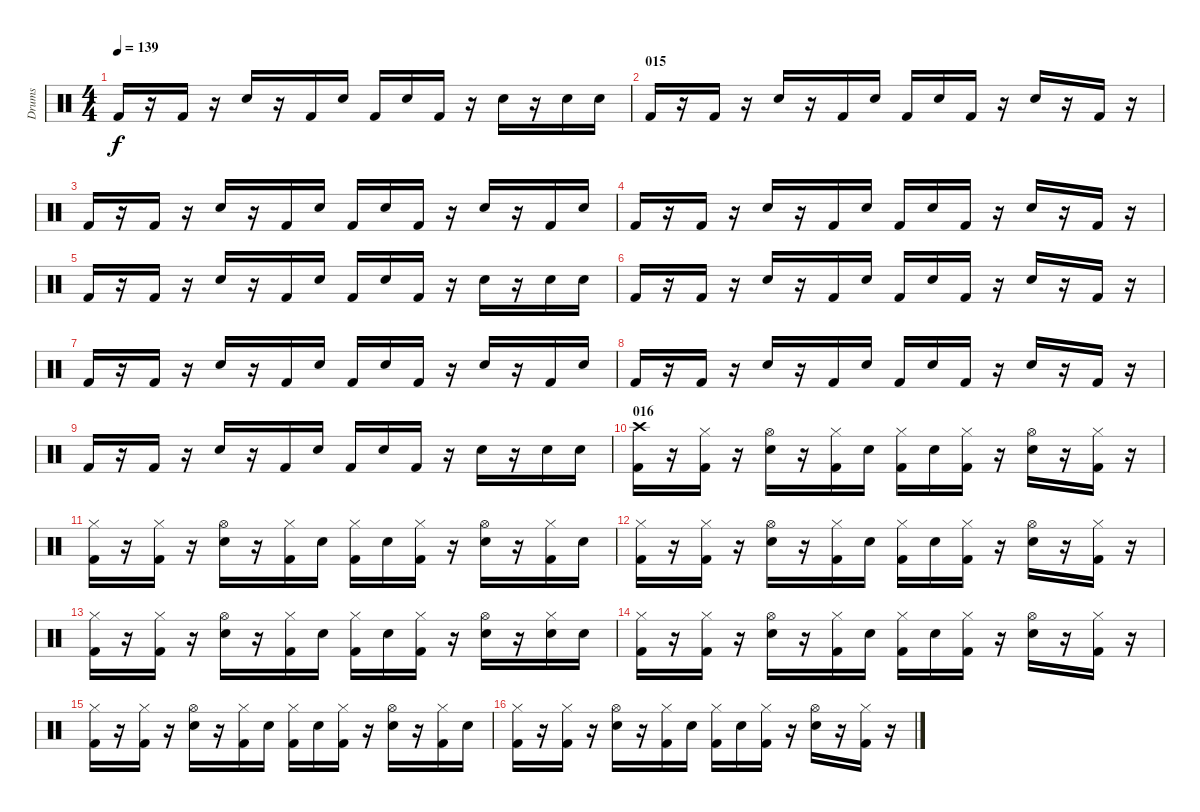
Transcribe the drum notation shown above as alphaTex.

\track ("Drums" "Drums") {instrument percussion}
\staff {score}
\articulation defaults
\ts (4 4)
\tempo 139
\clef neutral
\ks c "Kick (hit) 2".16{dy f}
r.16 "Kick (hit) 2".16 r.16 "Electric Snare (hit)".16 r.16 "Kick (hit) 2".16 "Electric Snare (hit)".16 "Kick (hit) 2".16 "Electric Snare (hit)".16 "Kick (hit) 2".16 r.16 "Electric Snare (hit)".16 r.16 "Electric Snare (hit)".16 "Electric Snare (hit)".16 |
\section ("" "015")
"Kick (hit) 2".16 r.16 "Kick (hit) 2".16 r.16 "Electric Snare (hit)".16 r.16 "Kick (hit) 2".16 "Electric Snare (hit)".16 "Kick (hit) 2".16 "Electric Snare (hit)".16 "Kick (hit) 2".16 r.16 "Electric Snare (hit)".16 r.16 "Kick (hit) 2".16 r.16 |
"Kick (hit) 2".16 r.16 "Kick (hit) 2".16 r.16 "Electric Snare (hit)".16 r.16 "Kick (hit) 2".16 "Electric Snare (hit)".16 "Kick (hit) 2".16 "Electric Snare (hit)".16 "Kick (hit) 2".16 r.16 "Electric Snare (hit)".16 r.16 "Kick (hit) 2".16 "Electric Snare (hit)".16 |
"Kick (hit) 2".16 r.16 "Kick (hit) 2".16 r.16 "Electric Snare (hit)".16 r.16 "Kick (hit) 2".16 "Electric Snare (hit)".16 "Kick (hit) 2".16 "Electric Snare (hit)".16 "Kick (hit) 2".16 r.16 "Electric Snare (hit)".16 r.16 "Kick (hit) 2".16 r.16 |
"Kick (hit) 2".16 r.16 "Kick (hit) 2".16 r.16 "Electric Snare (hit)".16 r.16 "Kick (hit) 2".16 "Electric Snare (hit)".16 "Kick (hit) 2".16 "Electric Snare (hit)".16 "Kick (hit) 2".16 r.16 "Electric Snare (hit)".16 r.16 "Electric Snare (hit)".16 "Electric Snare (hit)".16 |
"Kick (hit) 2".16 r.16 "Kick (hit) 2".16 r.16 "Electric Snare (hit)".16 r.16 "Kick (hit) 2".16 "Electric Snare (hit)".16 "Kick (hit) 2".16 "Electric Snare (hit)".16 "Kick (hit) 2".16 r.16 "Electric Snare (hit)".16 r.16 "Kick (hit) 2".16 r.16 |
"Kick (hit) 2".16 r.16 "Kick (hit) 2".16 r.16 "Electric Snare (hit)".16 r.16 "Kick (hit) 2".16 "Electric Snare (hit)".16 "Kick (hit) 2".16 "Electric Snare (hit)".16 "Kick (hit) 2".16 r.16 "Electric Snare (hit)".16 r.16 "Kick (hit) 2".16 "Electric Snare (hit)".16 |
"Kick (hit) 2".16 r.16 "Kick (hit) 2".16 r.16 "Electric Snare (hit)".16 r.16 "Kick (hit) 2".16 "Electric Snare (hit)".16 "Kick (hit) 2".16 "Electric Snare (hit)".16 "Kick (hit) 2".16 r.16 "Electric Snare (hit)".16 r.16 "Kick (hit) 2".16 r.16 |
"Kick (hit) 2".16 r.16 "Kick (hit) 2".16 r.16 "Electric Snare (hit)".16 r.16 "Kick (hit) 2".16 "Electric Snare (hit)".16 "Kick (hit) 2".16 "Electric Snare (hit)".16 "Kick (hit) 2".16 r.16 "Electric Snare (hit)".16 r.16 "Electric Snare (hit)".16 "Electric Snare (hit)".16 |
\section ("" "016")
("Kick (hit) 2" "Crash high (hit)").16 r.16 ("Kick (hit) 2" "Hi-Hat (closed)").16 r.16 ("Electric Snare (hit)" "Hi-Hat (open)").16 r.16 ("Kick (hit) 2" "Hi-Hat (closed)").16 "Electric Snare (hit)".16 ("Kick (hit) 2" "Hi-Hat (closed)").16 "Electric Snare (hit)".16 ("Kick (hit) 2" "Hi-Hat (closed)").16 r.16 ("Electric Snare (hit)" "Hi-Hat (open)").16 r.16 ("Kick (hit) 2" "Hi-Hat (closed)").16 r.16 |
("Kick (hit) 2" "Hi-Hat (closed)").16 r.16 ("Kick (hit) 2" "Hi-Hat (closed)").16 r.16 ("Electric Snare (hit)" "Hi-Hat (open)").16 r.16 ("Kick (hit) 2" "Hi-Hat (closed)").16 "Electric Snare (hit)".16 ("Kick (hit) 2" "Hi-Hat (closed)").16 "Electric Snare (hit)".16 ("Kick (hit) 2" "Hi-Hat (closed)").16 r.16 ("Electric Snare (hit)" "Hi-Hat (open)").16 r.16 ("Kick (hit) 2" "Hi-Hat (closed)").16 "Electric Snare (hit)".16 |
("Kick (hit) 2" "Hi-Hat (closed)").16 r.16 ("Kick (hit) 2" "Hi-Hat (closed)").16 r.16 ("Electric Snare (hit)" "Hi-Hat (open)").16 r.16 ("Kick (hit) 2" "Hi-Hat (closed)").16 "Electric Snare (hit)".16 ("Kick (hit) 2" "Hi-Hat (closed)").16 "Electric Snare (hit)".16 ("Kick (hit) 2" "Hi-Hat (closed)").16 r.16 ("Electric Snare (hit)" "Hi-Hat (open)").16 r.16 ("Kick (hit) 2" "Hi-Hat (closed)").16 r.16 |
("Kick (hit) 2" "Hi-Hat (closed)").16 r.16 ("Kick (hit) 2" "Hi-Hat (closed)").16 r.16 ("Electric Snare (hit)" "Hi-Hat (open)").16 r.16 ("Kick (hit) 2" "Hi-Hat (closed)").16 "Electric Snare (hit)".16 ("Kick (hit) 2" "Hi-Hat (closed)").16 "Electric Snare (hit)".16 ("Kick (hit) 2" "Hi-Hat (closed)").16 r.16 ("Electric Snare (hit)" "Hi-Hat (open)").16 r.16 ("Electric Snare (hit)" "Hi-Hat (closed)").16 "Electric Snare (hit)".16 |
("Kick (hit) 2" "Hi-Hat (closed)").16 r.16 ("Kick (hit) 2" "Hi-Hat (closed)").16 r.16 ("Electric Snare (hit)" "Hi-Hat (open)").16 r.16 ("Kick (hit) 2" "Hi-Hat (closed)").16 "Electric Snare (hit)".16 ("Kick (hit) 2" "Hi-Hat (closed)").16 "Electric Snare (hit)".16 ("Kick (hit) 2" "Hi-Hat (closed)").16 r.16 ("Electric Snare (hit)" "Hi-Hat (open)").16 r.16 ("Kick (hit) 2" "Hi-Hat (closed)").16 r.16 |
("Kick (hit) 2" "Hi-Hat (closed)").16 r.16 ("Kick (hit) 2" "Hi-Hat (closed)").16 r.16 ("Electric Snare (hit)" "Hi-Hat (open)").16 r.16 ("Kick (hit) 2" "Hi-Hat (closed)").16 "Electric Snare (hit)".16 ("Kick (hit) 2" "Hi-Hat (closed)").16 "Electric Snare (hit)".16 ("Kick (hit) 2" "Hi-Hat (closed)").16 r.16 ("Electric Snare (hit)" "Hi-Hat (open)").16 r.16 ("Kick (hit) 2" "Hi-Hat (closed)").16 "Electric Snare (hit)".16 |
("Kick (hit) 2" "Hi-Hat (closed)").16 r.16 ("Kick (hit) 2" "Hi-Hat (closed)").16 r.16 ("Electric Snare (hit)" "Hi-Hat (open)").16 r.16 ("Kick (hit) 2" "Hi-Hat (closed)").16 "Electric Snare (hit)".16 ("Kick (hit) 2" "Hi-Hat (closed)").16 "Electric Snare (hit)".16 ("Kick (hit) 2" "Hi-Hat (closed)").16 r.16 ("Electric Snare (hit)" "Hi-Hat (open)").16 r.16 ("Kick (hit) 2" "Hi-Hat (closed)").16 r.16
